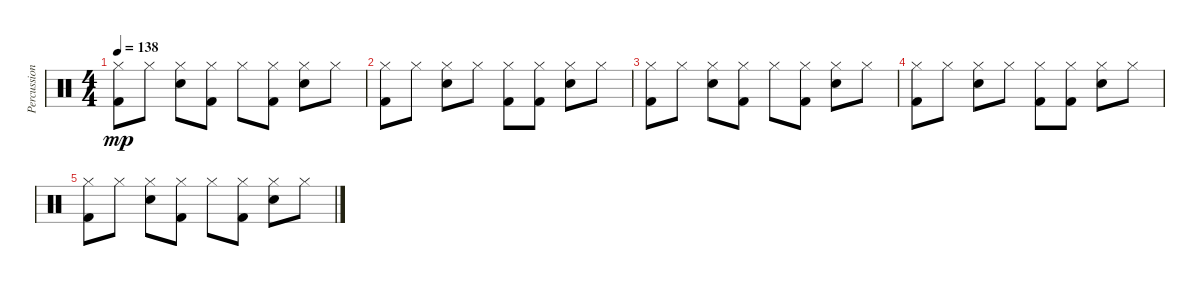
\track ("Percussion" "Percussion") {instrument percussion}
\staff {score}
\articulation defaults
\ts (4 4)
\tempo 138
\clef neutral
\ks c
("Hi-Hat (closed)" "Kick (hit) 2").8{dy mp} "Hi-Hat (closed)".8 ("Hi-Hat (closed)" "Electric Snare (hit)").8 ("Hi-Hat (closed)" "Kick (hit) 2").8 "Hi-Hat (closed)".8 ("Hi-Hat (closed)" "Kick (hit) 2").8 ("Hi-Hat (closed)" "Electric Snare (hit)").8 "Hi-Hat (closed)".8 |
("Hi-Hat (closed)" "Kick (hit) 2").8 "Hi-Hat (closed)".8 ("Hi-Hat (closed)" "Electric Snare (hit)").8 "Hi-Hat (closed)".8 ("Hi-Hat (closed)" "Kick (hit) 2").8 ("Hi-Hat (closed)" "Kick (hit) 2").8 ("Hi-Hat (closed)" "Electric Snare (hit)").8 "Hi-Hat (closed)".8 |
("Hi-Hat (closed)" "Kick (hit) 2").8 "Hi-Hat (closed)".8 ("Hi-Hat (closed)" "Electric Snare (hit)").8 ("Hi-Hat (closed)" "Kick (hit) 2").8 "Hi-Hat (closed)".8 ("Hi-Hat (closed)" "Kick (hit) 2").8 ("Hi-Hat (closed)" "Electric Snare (hit)").8 "Hi-Hat (closed)".8 |
("Hi-Hat (closed)" "Kick (hit) 2").8 "Hi-Hat (closed)".8 ("Hi-Hat (closed)" "Electric Snare (hit)").8 "Hi-Hat (closed)".8 ("Hi-Hat (closed)" "Kick (hit) 2").8 ("Hi-Hat (closed)" "Kick (hit) 2").8 ("Hi-Hat (closed)" "Electric Snare (hit)").8 "Hi-Hat (closed)".8 |
("Hi-Hat (closed)" "Kick (hit) 2").8 "Hi-Hat (closed)".8 ("Hi-Hat (closed)" "Electric Snare (hit)").8 ("Hi-Hat (closed)" "Kick (hit) 2").8 "Hi-Hat (closed)".8 ("Hi-Hat (closed)" "Kick (hit) 2").8 ("Hi-Hat (closed)" "Electric Snare (hit)").8 "Hi-Hat (closed)".8
